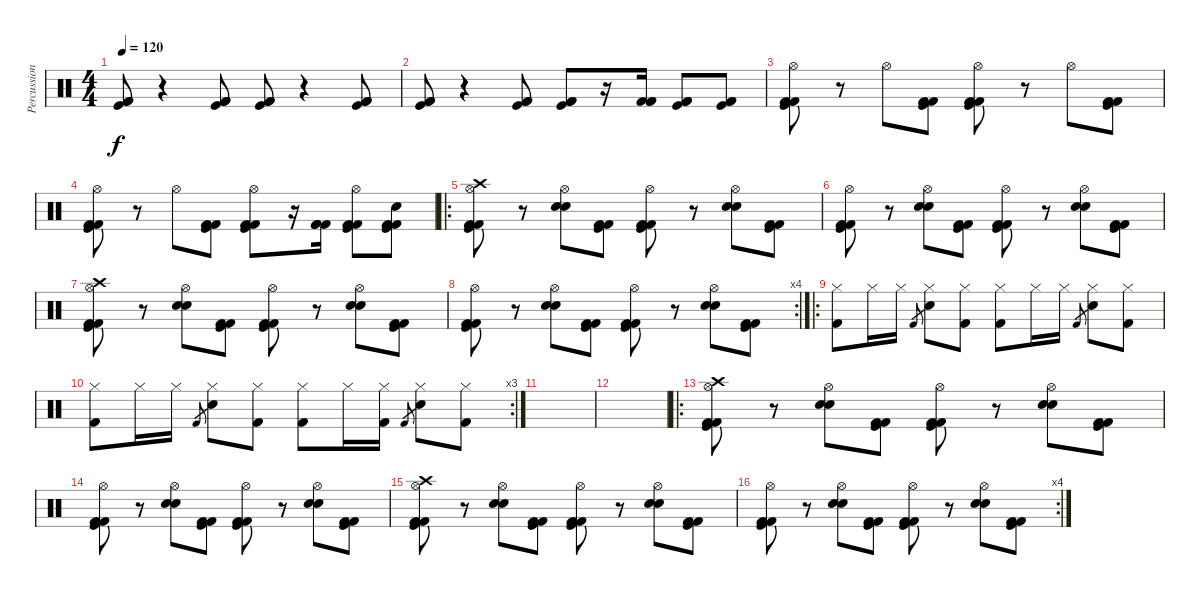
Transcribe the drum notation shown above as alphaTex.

\track ("Percussion" "Percussion") {instrument percussion}
\staff {score}
\articulation defaults
\ts (4 4)
\tempo 120
\clef neutral
\ks c
("Kick (hit) 2" "Kick (hit)" "Kick (hit) 2").8{dy f} r.4 ("Kick (hit) 2" "Kick (hit)" "Kick (hit) 2").8 ("Kick (hit) 2" "Kick (hit)" "Kick (hit) 2").8 r.4 ("Kick (hit) 2" "Kick (hit)" "Kick (hit) 2").8 |
("Kick (hit) 2" "Kick (hit)" "Kick (hit) 2").8 r.4 ("Kick (hit) 2" "Kick (hit)" "Kick (hit) 2").8 ("Kick (hit) 2" "Kick (hit)" "Kick (hit) 2").8 r.16 ("Kick (hit) 2" "Kick (hit) 2" "Kick (hit) 2").16 ("Kick (hit) 2" "Kick (hit)" "Kick (hit) 2").8 ("Kick (hit) 2" "Kick (hit)" "Kick (hit) 2").8 |
("Hi-Hat (open)" "Kick (hit) 2" "Kick (hit)" "Kick (hit) 2").8 r.8 "Hi-Hat (open)".8 ("Kick (hit) 2" "Kick (hit)" "Kick (hit) 2").8 ("Hi-Hat (open)" "Kick (hit) 2" "Kick (hit)" "Kick (hit) 2").8 r.8 "Hi-Hat (open)".8 ("Kick (hit) 2" "Kick (hit)" "Kick (hit) 2").8 |
("Hi-Hat (open)" "Kick (hit) 2" "Kick (hit)" "Kick (hit) 2").8 r.8 "Hi-Hat (open)".8 ("Kick (hit) 2" "Kick (hit)" "Kick (hit) 2").8 ("Hi-Hat (open)" "Kick (hit) 2" "Kick (hit)" "Kick (hit) 2").8 r.16 ("Kick (hit) 2" "Kick (hit) 2" "Kick (hit) 2").16 ("Hi-Hat (open)" "Kick (hit) 2" "Kick (hit)" "Kick (hit) 2").8 ("Snare (hit) 2" "Kick (hit) 2" "Kick (hit)" "Kick (hit) 2").8 |
\ro
("Hi-Hat (open)" "Crash high (hit)" "Kick (hit) 2" "Kick (hit)" "Kick (hit) 2").8 r.8 ("Hi-Hat (open)" "Snare (hit) 2" "Snare (hit) 2").8 ("Kick (hit) 2" "Kick (hit)" "Kick (hit) 2").8 ("Hi-Hat (open)" "Kick (hit) 2" "Kick (hit)" "Kick (hit) 2").8 r.8 ("Hi-Hat (open)" "Snare (hit) 2" "Snare (hit) 2").8 ("Kick (hit) 2" "Kick (hit)" "Kick (hit) 2").8 |
("Hi-Hat (open)" "Kick (hit) 2" "Kick (hit)" "Kick (hit) 2").8 r.8 ("Hi-Hat (open)" "Snare (hit) 2" "Snare (hit) 2").8 ("Kick (hit) 2" "Kick (hit)" "Kick (hit) 2").8 ("Hi-Hat (open)" "Kick (hit) 2" "Kick (hit)" "Kick (hit) 2").8 r.8 ("Hi-Hat (open)" "Snare (hit) 2" "Snare (hit) 2").8 ("Kick (hit) 2" "Kick (hit)" "Kick (hit) 2").8 |
("Hi-Hat (open)" "Crash high (hit)" "Kick (hit) 2" "Kick (hit)" "Kick (hit) 2").8 r.8 ("Hi-Hat (open)" "Snare (hit) 2" "Snare (hit) 2").8 ("Kick (hit) 2" "Kick (hit)" "Kick (hit) 2").8 ("Hi-Hat (open)" "Kick (hit) 2" "Kick (hit)" "Kick (hit) 2").8 r.8 ("Hi-Hat (open)" "Snare (hit) 2" "Snare (hit) 2").8 ("Kick (hit) 2" "Kick (hit)" "Kick (hit) 2").8 |
\rc 4
("Hi-Hat (open)" "Kick (hit) 2" "Kick (hit)" "Kick (hit) 2").8 r.8 ("Hi-Hat (open)" "Snare (hit) 2" "Snare (hit) 2").8 ("Kick (hit) 2" "Kick (hit)" "Kick (hit) 2").8 ("Hi-Hat (open)" "Kick (hit) 2" "Kick (hit)" "Kick (hit) 2").8 r.8 ("Hi-Hat (open)" "Snare (hit) 2" "Snare (hit) 2").8 ("Kick (hit) 2" "Kick (hit)" "Kick (hit) 2").8 |
\ro
("Hi-Hat (closed)" "Kick (hit) 2").8 "Hi-Hat (closed)".16 "Hi-Hat (closed)".16 "Kick (hit) 2".8{gr} ("Hi-Hat (closed)" "Electric Snare (hit)").8 ("Hi-Hat (closed)" "Kick (hit) 2").8 ("Hi-Hat (closed)" "Kick (hit) 2").8 "Hi-Hat (closed)".16 "Hi-Hat (closed)".16 "Kick (hit) 2".8{gr} ("Hi-Hat (closed)" "Electric Snare (hit)").8 ("Hi-Hat (closed)" "Kick (hit) 2").8 |
\rc 3
("Hi-Hat (closed)" "Kick (hit) 2").8 "Hi-Hat (closed)".16 "Hi-Hat (closed)".16 "Kick (hit) 2".8{gr} ("Hi-Hat (closed)" "Electric Snare (hit)").8 ("Hi-Hat (closed)" "Kick (hit) 2").8 ("Hi-Hat (closed)" "Kick (hit) 2").8 "Hi-Hat (closed)".16 ("Hi-Hat (closed)" "Kick (hit) 2").16 "Kick (hit) 2".8{gr} ("Hi-Hat (closed)" "Electric Snare (hit)").8 ("Hi-Hat (closed)" "Kick (hit) 2").8 |
|
|
\ro
("Hi-Hat (open)" "Crash high (hit)" "Kick (hit) 2" "Kick (hit)" "Kick (hit) 2").8 r.8 ("Hi-Hat (open)" "Snare (hit) 2" "Snare (hit) 2").8 ("Kick (hit) 2" "Kick (hit)" "Kick (hit) 2").8 ("Hi-Hat (open)" "Kick (hit) 2" "Kick (hit)" "Kick (hit) 2").8 r.8 ("Hi-Hat (open)" "Snare (hit) 2" "Snare (hit) 2").8 ("Kick (hit) 2" "Kick (hit)" "Kick (hit) 2").8 |
("Hi-Hat (open)" "Kick (hit) 2" "Kick (hit)" "Kick (hit) 2").8 r.8 ("Hi-Hat (open)" "Snare (hit) 2" "Snare (hit) 2").8 ("Kick (hit) 2" "Kick (hit)" "Kick (hit) 2").8 ("Hi-Hat (open)" "Kick (hit) 2" "Kick (hit)" "Kick (hit) 2").8 r.8 ("Hi-Hat (open)" "Snare (hit) 2" "Snare (hit) 2").8 ("Kick (hit) 2" "Kick (hit)" "Kick (hit) 2").8 |
("Hi-Hat (open)" "Crash high (hit)" "Kick (hit) 2" "Kick (hit)" "Kick (hit) 2").8 r.8 ("Hi-Hat (open)" "Snare (hit) 2" "Snare (hit) 2").8 ("Kick (hit) 2" "Kick (hit)" "Kick (hit) 2").8 ("Hi-Hat (open)" "Kick (hit) 2" "Kick (hit)" "Kick (hit) 2").8 r.8 ("Hi-Hat (open)" "Snare (hit) 2" "Snare (hit) 2").8 ("Kick (hit) 2" "Kick (hit)" "Kick (hit) 2").8 |
\rc 4
("Hi-Hat (open)" "Kick (hit) 2" "Kick (hit)" "Kick (hit) 2").8 r.8 ("Hi-Hat (open)" "Snare (hit) 2" "Snare (hit) 2").8 ("Kick (hit) 2" "Kick (hit)" "Kick (hit) 2").8 ("Hi-Hat (open)" "Kick (hit) 2" "Kick (hit)" "Kick (hit) 2").8 r.8 ("Hi-Hat (open)" "Snare (hit) 2" "Snare (hit) 2").8 ("Kick (hit) 2" "Kick (hit)" "Kick (hit) 2").8
